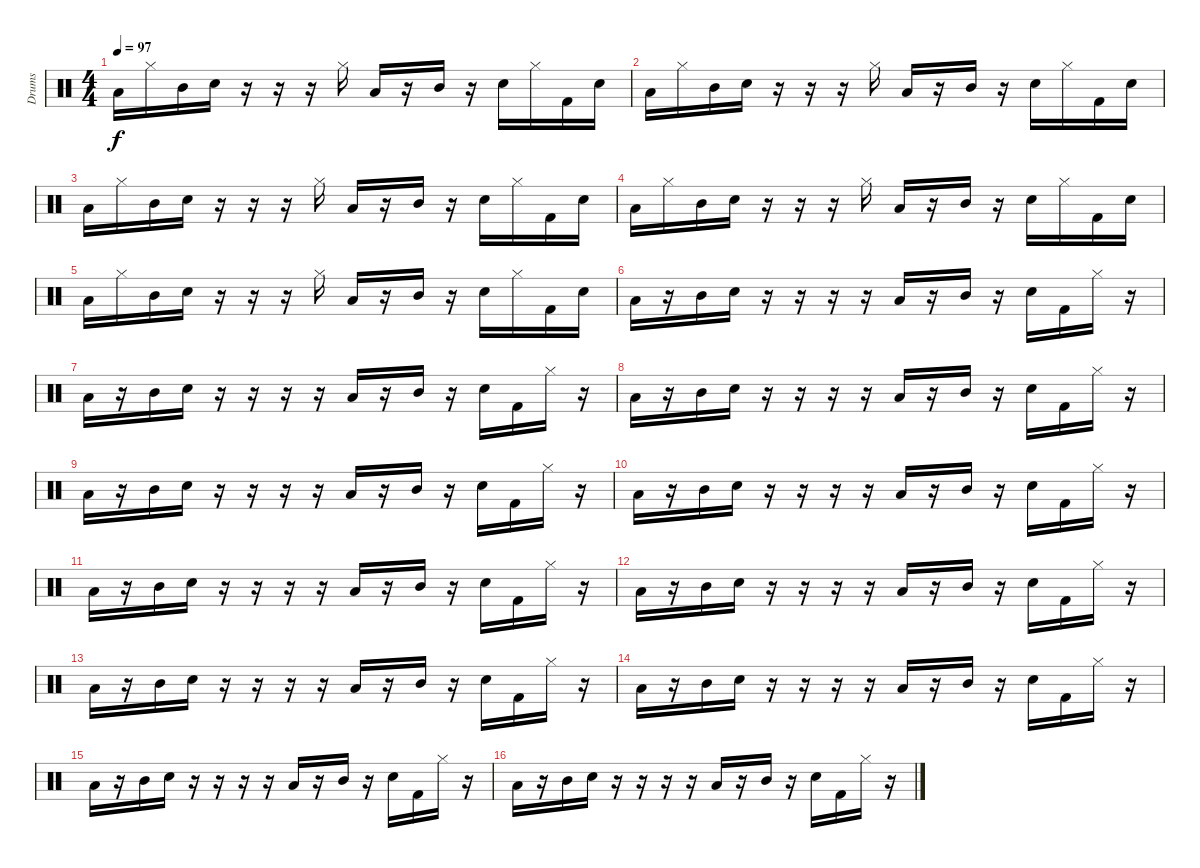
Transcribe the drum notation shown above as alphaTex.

\track ("Drums" "Drums") {instrument percussion}
\staff {score}
\articulation defaults
\ts (4 4)
\tempo 97
\clef neutral
\ks c "Low Tom (hit)".16{dy f} "Hi-Hat (closed)".16 "Mid Tom (hit)".16 "Snare (hit) 2".16
r.16 r.16 r.16 "Hi-Hat (closed)".16 "Low Tom (hit)".16 r.16 "Mid Tom (hit)".16 r.16 "Snare (hit) 2".16 "Hi-Hat (closed)".16 "Kick (hit) 2".16 "Snare (hit) 2".16 |
"Low Tom (hit)".16 "Hi-Hat (closed)".16 "Mid Tom (hit)".16 "Snare (hit) 2".16 r.16 r.16 r.16 "Hi-Hat (closed)".16 "Low Tom (hit)".16 r.16 "Mid Tom (hit)".16 r.16 "Snare (hit) 2".16 "Hi-Hat (closed)".16 "Kick (hit) 2".16 "Snare (hit) 2".16 |
"Low Tom (hit)".16 "Hi-Hat (closed)".16 "Mid Tom (hit)".16 "Snare (hit) 2".16 r.16 r.16 r.16 "Hi-Hat (closed)".16 "Low Tom (hit)".16 r.16 "Mid Tom (hit)".16 r.16 "Snare (hit) 2".16 "Hi-Hat (closed)".16 "Kick (hit) 2".16 "Snare (hit) 2".16 |
"Low Tom (hit)".16 "Hi-Hat (closed)".16 "Mid Tom (hit)".16 "Snare (hit) 2".16 r.16 r.16 r.16 "Hi-Hat (closed)".16 "Low Tom (hit)".16 r.16 "Mid Tom (hit)".16 r.16 "Snare (hit) 2".16 "Hi-Hat (closed)".16 "Kick (hit) 2".16 "Snare (hit) 2".16 |
"Low Tom (hit)".16 "Hi-Hat (closed)".16 "Mid Tom (hit)".16 "Snare (hit) 2".16 r.16 r.16 r.16 "Hi-Hat (closed)".16 "Low Tom (hit)".16 r.16 "Mid Tom (hit)".16 r.16 "Snare (hit) 2".16 "Hi-Hat (closed)".16 "Kick (hit) 2".16 "Snare (hit) 2".16 |
"Low Tom (hit)".16 r.16 "Mid Tom (hit)".16 "Snare (hit) 2".16 r.16 r.16 r.16 r.16 "Low Tom (hit)".16 r.16 "Mid Tom (hit)".16 r.16 "Snare (hit) 2".16 "Kick (hit) 2".16 "Hi-Hat (closed)".16 r.16 |
"Low Tom (hit)".16 r.16 "Mid Tom (hit)".16 "Snare (hit) 2".16 r.16 r.16 r.16 r.16 "Low Tom (hit)".16 r.16 "Mid Tom (hit)".16 r.16 "Snare (hit) 2".16 "Kick (hit) 2".16 "Hi-Hat (closed)".16 r.16 |
"Low Tom (hit)".16 r.16 "Mid Tom (hit)".16 "Snare (hit) 2".16 r.16 r.16 r.16 r.16 "Low Tom (hit)".16 r.16 "Mid Tom (hit)".16 r.16 "Snare (hit) 2".16 "Kick (hit) 2".16 "Hi-Hat (closed)".16 r.16 |
"Low Tom (hit)".16 r.16 "Mid Tom (hit)".16 "Snare (hit) 2".16 r.16 r.16 r.16 r.16 "Low Tom (hit)".16 r.16 "Mid Tom (hit)".16 r.16 "Snare (hit) 2".16 "Kick (hit) 2".16 "Hi-Hat (closed)".16 r.16 |
"Low Tom (hit)".16 r.16 "Mid Tom (hit)".16 "Snare (hit) 2".16 r.16 r.16 r.16 r.16 "Low Tom (hit)".16 r.16 "Mid Tom (hit)".16 r.16 "Snare (hit) 2".16 "Kick (hit) 2".16 "Hi-Hat (closed)".16 r.16 |
"Low Tom (hit)".16 r.16 "Mid Tom (hit)".16 "Snare (hit) 2".16 r.16 r.16 r.16 r.16 "Low Tom (hit)".16 r.16 "Mid Tom (hit)".16 r.16 "Snare (hit) 2".16 "Kick (hit) 2".16 "Hi-Hat (closed)".16 r.16 |
"Low Tom (hit)".16 r.16 "Mid Tom (hit)".16 "Snare (hit) 2".16 r.16 r.16 r.16 r.16 "Low Tom (hit)".16 r.16 "Mid Tom (hit)".16 r.16 "Snare (hit) 2".16 "Kick (hit) 2".16 "Hi-Hat (closed)".16 r.16 |
"Low Tom (hit)".16 r.16 "Mid Tom (hit)".16 "Snare (hit) 2".16 r.16 r.16 r.16 r.16 "Low Tom (hit)".16 r.16 "Mid Tom (hit)".16 r.16 "Snare (hit) 2".16 "Kick (hit) 2".16 "Hi-Hat (closed)".16 r.16 |
"Low Tom (hit)".16 r.16 "Mid Tom (hit)".16 "Snare (hit) 2".16 r.16 r.16 r.16 r.16 "Low Tom (hit)".16 r.16 "Mid Tom (hit)".16 r.16 "Snare (hit) 2".16 "Kick (hit) 2".16 "Hi-Hat (closed)".16 r.16 |
"Low Tom (hit)".16 r.16 "Mid Tom (hit)".16 "Snare (hit) 2".16 r.16 r.16 r.16 r.16 "Low Tom (hit)".16 r.16 "Mid Tom (hit)".16 r.16 "Snare (hit) 2".16 "Kick (hit) 2".16 "Hi-Hat (closed)".16 r.16 |
"Low Tom (hit)".16 r.16 "Mid Tom (hit)".16 "Snare (hit) 2".16 r.16 r.16 r.16 r.16 "Low Tom (hit)".16 r.16 "Mid Tom (hit)".16 r.16 "Snare (hit) 2".16 "Kick (hit) 2".16 "Hi-Hat (closed)".16 r.16
